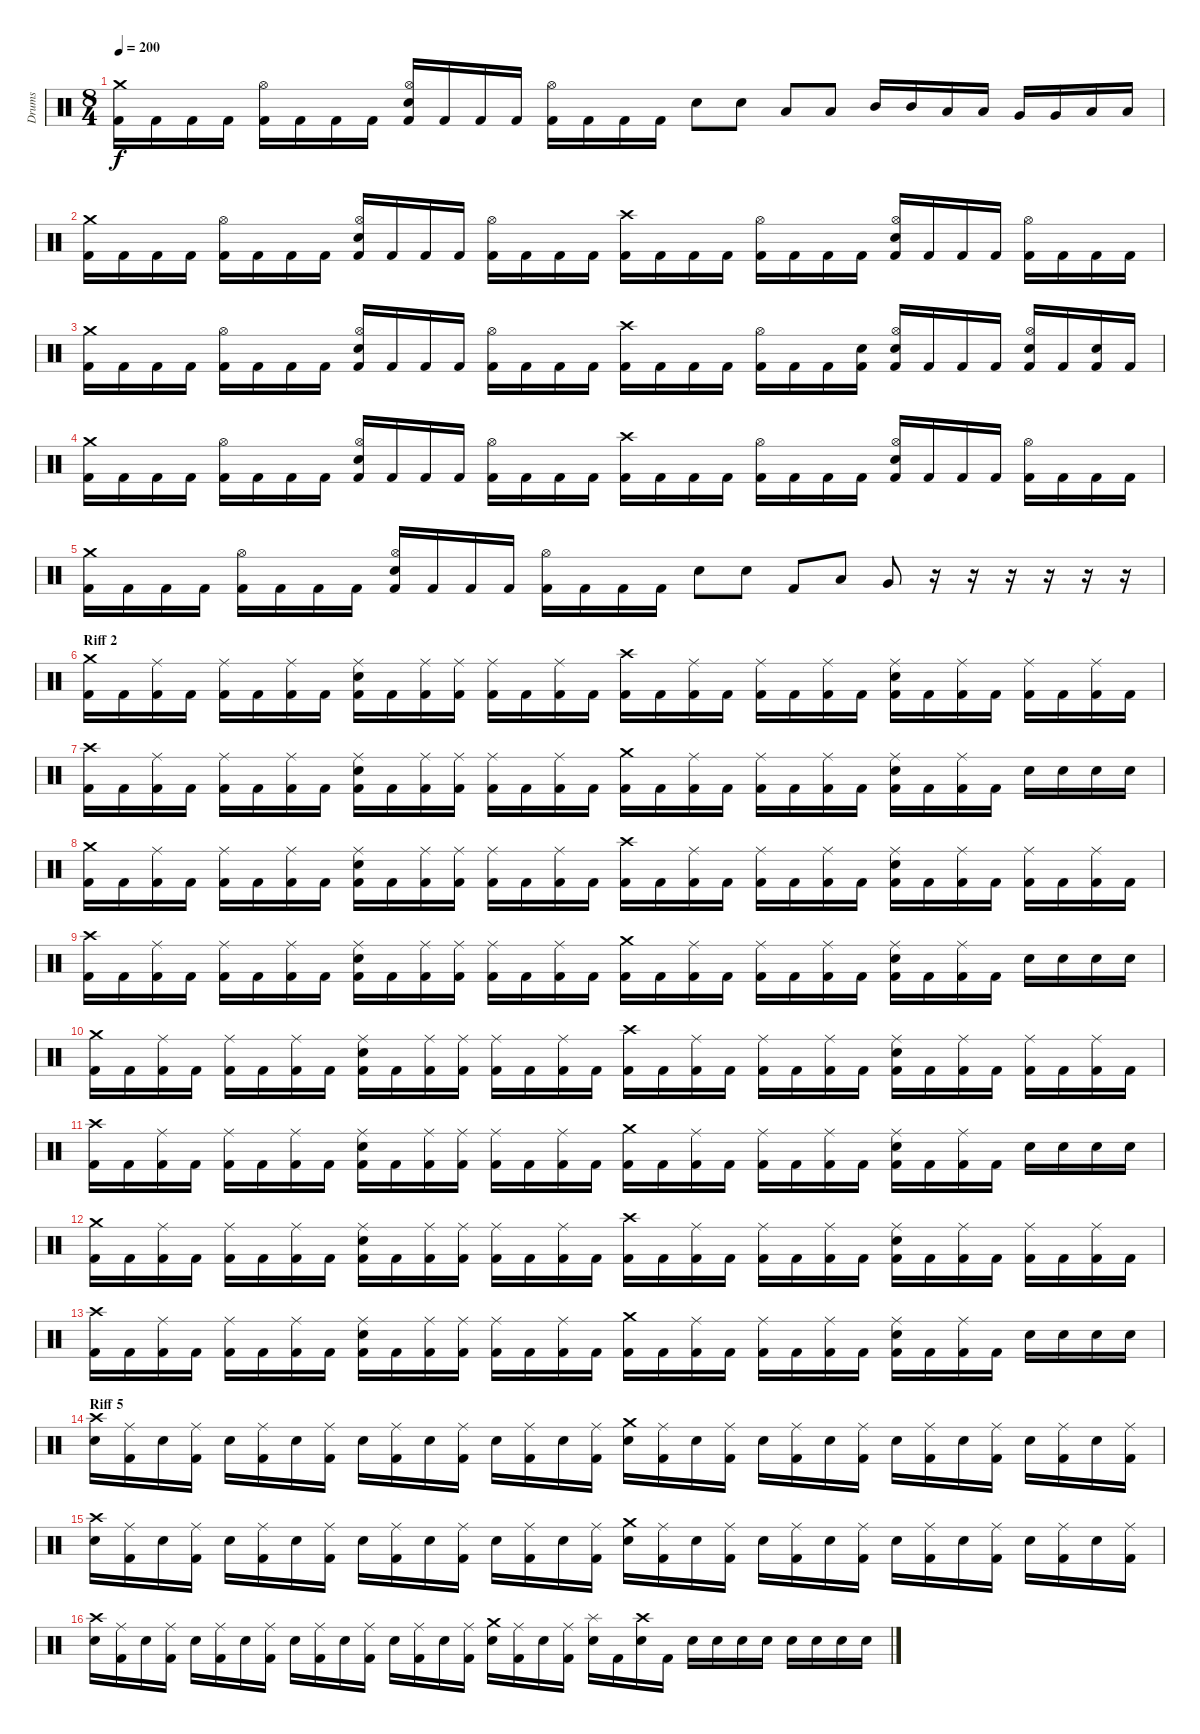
\track ("Drums" "Drums") {instrument percussion}
\staff {score}
\articulation defaults
\ts (8 4)
\tempo 200
\clef neutral
\ks c
("Crash medium (hit)" "Kick (hit) 2").16{dy f} "Kick (hit) 2".16 "Kick (hit) 2".16 "Kick (hit) 2".16 ("Hi-Hat (open)" "Kick (hit) 2").16 "Kick (hit) 2".16 "Kick (hit) 2".16 "Kick (hit) 2".16 ("Hi-Hat (open)" "Electric Snare (hit)" "Kick (hit) 2").16 "Kick (hit) 2".16 "Kick (hit) 2".16 "Kick (hit) 2".16 ("Hi-Hat (open)" "Kick (hit) 2").16 "Kick (hit) 2".16 "Kick (hit) 2".16 "Kick (hit) 2".16 "Electric Snare (hit)".8 "Electric Snare (hit)".8 "Low Tom (hit)".8 "Low Tom (hit)".8 "Mid Tom (hit)".16 "Mid Tom (hit)".16 "Low Tom (hit)".16 "Low Tom (hit)".16 "Very Low Tom (hit)".16 "Very Low Tom (hit)".16 "Low Floor Tom (hit)".16 "Low Floor Tom (hit)".16 |
("Crash medium (hit)" "Kick (hit) 2").16 "Kick (hit) 2".16 "Kick (hit) 2".16 "Kick (hit) 2".16 ("Hi-Hat (open)" "Kick (hit) 2").16 "Kick (hit) 2".16 "Kick (hit) 2".16 "Kick (hit) 2".16 ("Hi-Hat (open)" "Electric Snare (hit)" "Kick (hit) 2").16 "Kick (hit) 2".16 "Kick (hit) 2".16 "Kick (hit) 2".16 ("Hi-Hat (open)" "Kick (hit) 2").16 "Kick (hit) 2".16 "Kick (hit) 2".16 "Kick (hit) 2".16 ("Crash high (hit)" "Kick (hit) 2").16 "Kick (hit) 2".16 "Kick (hit) 2".16 "Kick (hit) 2".16 ("Hi-Hat (open)" "Kick (hit) 2").16 "Kick (hit) 2".16 "Kick (hit) 2".16 "Kick (hit) 2".16 ("Hi-Hat (open)" "Electric Snare (hit)" "Kick (hit) 2").16 "Kick (hit) 2".16 "Kick (hit) 2".16 "Kick (hit) 2".16 ("Hi-Hat (open)" "Kick (hit) 2").16 "Kick (hit) 2".16 "Kick (hit) 2".16 "Kick (hit) 2".16 |
("Crash medium (hit)" "Kick (hit) 2").16 "Kick (hit) 2".16 "Kick (hit) 2".16 "Kick (hit) 2".16 ("Hi-Hat (open)" "Kick (hit) 2").16 "Kick (hit) 2".16 "Kick (hit) 2".16 "Kick (hit) 2".16 ("Hi-Hat (open)" "Electric Snare (hit)" "Kick (hit) 2").16 "Kick (hit) 2".16 "Kick (hit) 2".16 "Kick (hit) 2".16 ("Hi-Hat (open)" "Kick (hit) 2").16 "Kick (hit) 2".16 "Kick (hit) 2".16 "Kick (hit) 2".16 ("Crash high (hit)" "Kick (hit) 2").16 "Kick (hit) 2".16 "Kick (hit) 2".16 "Kick (hit) 2".16 ("Hi-Hat (open)" "Kick (hit) 2").16 "Kick (hit) 2".16 "Kick (hit) 2".16 ("Electric Snare (hit)" "Kick (hit) 2").16 ("Hi-Hat (open)" "Electric Snare (hit)" "Kick (hit) 2").16 "Kick (hit) 2".16 "Kick (hit) 2".16 "Kick (hit) 2".16 ("Hi-Hat (open)" "Electric Snare (hit)" "Kick (hit) 2").16 "Kick (hit) 2".16 ("Electric Snare (hit)" "Kick (hit) 2").16 "Kick (hit) 2".16 |
("Crash medium (hit)" "Kick (hit) 2").16 "Kick (hit) 2".16 "Kick (hit) 2".16 "Kick (hit) 2".16 ("Hi-Hat (open)" "Kick (hit) 2").16 "Kick (hit) 2".16 "Kick (hit) 2".16 "Kick (hit) 2".16 ("Hi-Hat (open)" "Electric Snare (hit)" "Kick (hit) 2").16 "Kick (hit) 2".16 "Kick (hit) 2".16 "Kick (hit) 2".16 ("Hi-Hat (open)" "Kick (hit) 2").16 "Kick (hit) 2".16 "Kick (hit) 2".16 "Kick (hit) 2".16 ("Crash high (hit)" "Kick (hit) 2").16 "Kick (hit) 2".16 "Kick (hit) 2".16 "Kick (hit) 2".16 ("Hi-Hat (open)" "Kick (hit) 2").16 "Kick (hit) 2".16 "Kick (hit) 2".16 "Kick (hit) 2".16 ("Hi-Hat (open)" "Electric Snare (hit)" "Kick (hit) 2").16 "Kick (hit) 2".16 "Kick (hit) 2".16 "Kick (hit) 2".16 ("Hi-Hat (open)" "Kick (hit) 2").16 "Kick (hit) 2".16 "Kick (hit) 2".16 "Kick (hit) 2".16 |
("Crash medium (hit)" "Kick (hit) 2").16 "Kick (hit) 2".16 "Kick (hit) 2".16 "Kick (hit) 2".16 ("Hi-Hat (open)" "Kick (hit) 2").16 "Kick (hit) 2".16 "Kick (hit) 2".16 "Kick (hit) 2".16 ("Hi-Hat (open)" "Electric Snare (hit)" "Kick (hit) 2").16 "Kick (hit) 2".16 "Kick (hit) 2".16 "Kick (hit) 2".16 ("Hi-Hat (open)" "Kick (hit) 2").16 "Kick (hit) 2".16 "Kick (hit) 2".16 "Kick (hit) 2".16 "Electric Snare (hit)".8 "Electric Snare (hit)".8 "Kick (hit) 2".8 "Low Tom (hit)".8 "Very Low Tom (hit)".8 r.16 r.16 r.16 r.16 r.16 r.16 |
\section ("" "Riff 2")
("Crash medium (hit)" "Kick (hit) 2").16 "Kick (hit) 2".16 ("Ride (middle)" "Kick (hit) 2").16 "Kick (hit) 2".16 ("Ride (middle)" "Kick (hit) 2").16 "Kick (hit) 2".16 ("Ride (middle)" "Kick (hit) 2").16 "Kick (hit) 2".16 ("Ride (middle)" "Electric Snare (hit)" "Kick (hit) 2").16 "Kick (hit) 2".16 ("Ride (middle)" "Kick (hit) 2").16 ("Ride (middle)" "Kick (hit) 2").16 ("Ride (middle)" "Kick (hit) 2").16 "Kick (hit) 2".16 ("Ride (middle)" "Kick (hit) 2").16 "Kick (hit) 2".16 ("Crash high (hit)" "Kick (hit) 2").16 "Kick (hit) 2".16 ("Ride (middle)" "Kick (hit) 2").16 "Kick (hit) 2".16 ("Ride (middle)" "Kick (hit) 2").16 "Kick (hit) 2".16 ("Ride (middle)" "Kick (hit) 2").16 "Kick (hit) 2".16 ("Ride (middle)" "Electric Snare (hit)" "Kick (hit) 2").16 "Kick (hit) 2".16 ("Ride (middle)" "Kick (hit) 2").16 "Kick (hit) 2".16 ("Ride (middle)" "Kick (hit) 2").16 "Kick (hit) 2".16 ("Ride (middle)" "Kick (hit) 2").16 "Kick (hit) 2".16 |
("Crash high (hit)" "Kick (hit) 2").16 "Kick (hit) 2".16 ("Ride (middle)" "Kick (hit) 2").16 "Kick (hit) 2".16 ("Ride (middle)" "Kick (hit) 2").16 "Kick (hit) 2".16 ("Ride (middle)" "Kick (hit) 2").16 "Kick (hit) 2".16 ("Ride (middle)" "Electric Snare (hit)" "Kick (hit) 2").16 "Kick (hit) 2".16 ("Ride (middle)" "Kick (hit) 2").16 ("Ride (middle)" "Kick (hit) 2").16 ("Ride (middle)" "Kick (hit) 2").16 "Kick (hit) 2".16 ("Ride (middle)" "Kick (hit) 2").16 "Kick (hit) 2".16 ("Crash medium (hit)" "Kick (hit) 2").16 "Kick (hit) 2".16 ("Ride (middle)" "Kick (hit) 2").16 "Kick (hit) 2".16 ("Ride (middle)" "Kick (hit) 2").16 "Kick (hit) 2".16 ("Ride (middle)" "Kick (hit) 2").16 "Kick (hit) 2".16 ("Ride (middle)" "Electric Snare (hit)" "Kick (hit) 2").16 "Kick (hit) 2".16 ("Ride (middle)" "Kick (hit) 2").16 "Kick (hit) 2".16 "Electric Snare (hit)".16 "Electric Snare (hit)".16 "Electric Snare (hit)".16 "Electric Snare (hit)".16 |
("Crash medium (hit)" "Kick (hit) 2").16 "Kick (hit) 2".16 ("Ride (middle)" "Kick (hit) 2").16 "Kick (hit) 2".16 ("Ride (middle)" "Kick (hit) 2").16 "Kick (hit) 2".16 ("Ride (middle)" "Kick (hit) 2").16 "Kick (hit) 2".16 ("Ride (middle)" "Electric Snare (hit)" "Kick (hit) 2").16 "Kick (hit) 2".16 ("Ride (middle)" "Kick (hit) 2").16 ("Ride (middle)" "Kick (hit) 2").16 ("Ride (middle)" "Kick (hit) 2").16 "Kick (hit) 2".16 ("Ride (middle)" "Kick (hit) 2").16 "Kick (hit) 2".16 ("Crash high (hit)" "Kick (hit) 2").16 "Kick (hit) 2".16 ("Ride (middle)" "Kick (hit) 2").16 "Kick (hit) 2".16 ("Ride (middle)" "Kick (hit) 2").16 "Kick (hit) 2".16 ("Ride (middle)" "Kick (hit) 2").16 "Kick (hit) 2".16 ("Ride (middle)" "Electric Snare (hit)" "Kick (hit) 2").16 "Kick (hit) 2".16 ("Ride (middle)" "Kick (hit) 2").16 "Kick (hit) 2".16 ("Ride (middle)" "Kick (hit) 2").16 "Kick (hit) 2".16 ("Ride (middle)" "Kick (hit) 2").16 "Kick (hit) 2".16 |
("Crash high (hit)" "Kick (hit) 2").16 "Kick (hit) 2".16 ("Ride (middle)" "Kick (hit) 2").16 "Kick (hit) 2".16 ("Ride (middle)" "Kick (hit) 2").16 "Kick (hit) 2".16 ("Ride (middle)" "Kick (hit) 2").16 "Kick (hit) 2".16 ("Ride (middle)" "Electric Snare (hit)" "Kick (hit) 2").16 "Kick (hit) 2".16 ("Ride (middle)" "Kick (hit) 2").16 ("Ride (middle)" "Kick (hit) 2").16 ("Ride (middle)" "Kick (hit) 2").16 "Kick (hit) 2".16 ("Ride (middle)" "Kick (hit) 2").16 "Kick (hit) 2".16 ("Crash medium (hit)" "Kick (hit) 2").16 "Kick (hit) 2".16 ("Ride (middle)" "Kick (hit) 2").16 "Kick (hit) 2".16 ("Ride (middle)" "Kick (hit) 2").16 "Kick (hit) 2".16 ("Ride (middle)" "Kick (hit) 2").16 "Kick (hit) 2".16 ("Ride (middle)" "Electric Snare (hit)" "Kick (hit) 2").16 "Kick (hit) 2".16 ("Ride (middle)" "Kick (hit) 2").16 "Kick (hit) 2".16 "Electric Snare (hit)".16 "Electric Snare (hit)".16 "Electric Snare (hit)".16 "Electric Snare (hit)".16 |
("Crash medium (hit)" "Kick (hit) 2").16 "Kick (hit) 2".16 ("Ride (middle)" "Kick (hit) 2").16 "Kick (hit) 2".16 ("Ride (middle)" "Kick (hit) 2").16 "Kick (hit) 2".16 ("Ride (middle)" "Kick (hit) 2").16 "Kick (hit) 2".16 ("Ride (middle)" "Electric Snare (hit)" "Kick (hit) 2").16 "Kick (hit) 2".16 ("Ride (middle)" "Kick (hit) 2").16 ("Ride (middle)" "Kick (hit) 2").16 ("Ride (middle)" "Kick (hit) 2").16 "Kick (hit) 2".16 ("Ride (middle)" "Kick (hit) 2").16 "Kick (hit) 2".16 ("Crash high (hit)" "Kick (hit) 2").16 "Kick (hit) 2".16 ("Ride (middle)" "Kick (hit) 2").16 "Kick (hit) 2".16 ("Ride (middle)" "Kick (hit) 2").16 "Kick (hit) 2".16 ("Ride (middle)" "Kick (hit) 2").16 "Kick (hit) 2".16 ("Ride (middle)" "Electric Snare (hit)" "Kick (hit) 2").16 "Kick (hit) 2".16 ("Ride (middle)" "Kick (hit) 2").16 "Kick (hit) 2".16 ("Ride (middle)" "Kick (hit) 2").16 "Kick (hit) 2".16 ("Ride (middle)" "Kick (hit) 2").16 "Kick (hit) 2".16 |
("Crash high (hit)" "Kick (hit) 2").16 "Kick (hit) 2".16 ("Ride (middle)" "Kick (hit) 2").16 "Kick (hit) 2".16 ("Ride (middle)" "Kick (hit) 2").16 "Kick (hit) 2".16 ("Ride (middle)" "Kick (hit) 2").16 "Kick (hit) 2".16 ("Ride (middle)" "Electric Snare (hit)" "Kick (hit) 2").16 "Kick (hit) 2".16 ("Ride (middle)" "Kick (hit) 2").16 ("Ride (middle)" "Kick (hit) 2").16 ("Ride (middle)" "Kick (hit) 2").16 "Kick (hit) 2".16 ("Ride (middle)" "Kick (hit) 2").16 "Kick (hit) 2".16 ("Crash medium (hit)" "Kick (hit) 2").16 "Kick (hit) 2".16 ("Ride (middle)" "Kick (hit) 2").16 "Kick (hit) 2".16 ("Ride (middle)" "Kick (hit) 2").16 "Kick (hit) 2".16 ("Ride (middle)" "Kick (hit) 2").16 "Kick (hit) 2".16 ("Ride (middle)" "Electric Snare (hit)" "Kick (hit) 2").16 "Kick (hit) 2".16 ("Ride (middle)" "Kick (hit) 2").16 "Kick (hit) 2".16 "Electric Snare (hit)".16 "Electric Snare (hit)".16 "Electric Snare (hit)".16 "Electric Snare (hit)".16 |
("Crash medium (hit)" "Kick (hit) 2").16 "Kick (hit) 2".16 ("Ride (middle)" "Kick (hit) 2").16 "Kick (hit) 2".16 ("Ride (middle)" "Kick (hit) 2").16 "Kick (hit) 2".16 ("Ride (middle)" "Kick (hit) 2").16 "Kick (hit) 2".16 ("Ride (middle)" "Electric Snare (hit)" "Kick (hit) 2").16 "Kick (hit) 2".16 ("Ride (middle)" "Kick (hit) 2").16 ("Ride (middle)" "Kick (hit) 2").16 ("Ride (middle)" "Kick (hit) 2").16 "Kick (hit) 2".16 ("Ride (middle)" "Kick (hit) 2").16 "Kick (hit) 2".16 ("Crash high (hit)" "Kick (hit) 2").16 "Kick (hit) 2".16 ("Ride (middle)" "Kick (hit) 2").16 "Kick (hit) 2".16 ("Ride (middle)" "Kick (hit) 2").16 "Kick (hit) 2".16 ("Ride (middle)" "Kick (hit) 2").16 "Kick (hit) 2".16 ("Ride (middle)" "Electric Snare (hit)" "Kick (hit) 2").16 "Kick (hit) 2".16 ("Ride (middle)" "Kick (hit) 2").16 "Kick (hit) 2".16 ("Ride (middle)" "Kick (hit) 2").16 "Kick (hit) 2".16 ("Ride (middle)" "Kick (hit) 2").16 "Kick (hit) 2".16 |
("Crash high (hit)" "Kick (hit) 2").16 "Kick (hit) 2".16 ("Ride (middle)" "Kick (hit) 2").16 "Kick (hit) 2".16 ("Ride (middle)" "Kick (hit) 2").16 "Kick (hit) 2".16 ("Ride (middle)" "Kick (hit) 2").16 "Kick (hit) 2".16 ("Ride (middle)" "Electric Snare (hit)" "Kick (hit) 2").16 "Kick (hit) 2".16 ("Ride (middle)" "Kick (hit) 2").16 ("Ride (middle)" "Kick (hit) 2").16 ("Ride (middle)" "Kick (hit) 2").16 "Kick (hit) 2".16 ("Ride (middle)" "Kick (hit) 2").16 "Kick (hit) 2".16 ("Crash medium (hit)" "Kick (hit) 2").16 "Kick (hit) 2".16 ("Ride (middle)" "Kick (hit) 2").16 "Kick (hit) 2".16 ("Ride (middle)" "Kick (hit) 2").16 "Kick (hit) 2".16 ("Ride (middle)" "Kick (hit) 2").16 "Kick (hit) 2".16 ("Ride (middle)" "Electric Snare (hit)" "Kick (hit) 2").16 "Kick (hit) 2".16 ("Ride (middle)" "Kick (hit) 2").16 "Kick (hit) 2".16 "Electric Snare (hit)".16 "Electric Snare (hit)".16 "Electric Snare (hit)".16 "Electric Snare (hit)".16 |
\section ("" "Riff 5")
("Crash high (hit)" "Electric Snare (hit)").16 ("Ride (middle)" "Kick (hit) 2").16 "Electric Snare (hit)".16 ("Ride (middle)" "Kick (hit) 2").16 "Electric Snare (hit)".16 ("Ride (middle)" "Kick (hit) 2").16 "Electric Snare (hit)".16 ("Ride (middle)" "Kick (hit) 2").16 "Electric Snare (hit)".16 ("Ride (middle)" "Kick (hit) 2").16 "Electric Snare (hit)".16 ("Ride (middle)" "Kick (hit) 2").16 "Electric Snare (hit)".16 ("Ride (middle)" "Kick (hit) 2").16 "Electric Snare (hit)".16 ("Ride (middle)" "Kick (hit) 2").16 ("Crash medium (hit)" "Electric Snare (hit)").16 ("Ride (middle)" "Kick (hit) 2").16 "Electric Snare (hit)".16 ("Ride (middle)" "Kick (hit) 2").16 "Electric Snare (hit)".16 ("Ride (middle)" "Kick (hit) 2").16 "Electric Snare (hit)".16 ("Ride (middle)" "Kick (hit) 2").16 "Electric Snare (hit)".16 ("Ride (middle)" "Kick (hit) 2").16 "Electric Snare (hit)".16 ("Ride (middle)" "Kick (hit) 2").16 "Electric Snare (hit)".16 ("Ride (middle)" "Kick (hit) 2").16 "Electric Snare (hit)".16 ("Ride (middle)" "Kick (hit) 2").16 |
("Crash high (hit)" "Electric Snare (hit)").16 ("Ride (middle)" "Kick (hit) 2").16 "Electric Snare (hit)".16 ("Ride (middle)" "Kick (hit) 2").16 "Electric Snare (hit)".16 ("Ride (middle)" "Kick (hit) 2").16 "Electric Snare (hit)".16 ("Ride (middle)" "Kick (hit) 2").16 "Electric Snare (hit)".16 ("Ride (middle)" "Kick (hit) 2").16 "Electric Snare (hit)".16 ("Ride (middle)" "Kick (hit) 2").16 "Electric Snare (hit)".16 ("Ride (middle)" "Kick (hit) 2").16 "Electric Snare (hit)".16 ("Ride (middle)" "Kick (hit) 2").16 ("Crash medium (hit)" "Electric Snare (hit)").16 ("Ride (middle)" "Kick (hit) 2").16 "Electric Snare (hit)".16 ("Ride (middle)" "Kick (hit) 2").16 "Electric Snare (hit)".16 ("Ride (middle)" "Kick (hit) 2").16 "Electric Snare (hit)".16 ("Ride (middle)" "Kick (hit) 2").16 "Electric Snare (hit)".16 ("Ride (middle)" "Kick (hit) 2").16 "Electric Snare (hit)".16 ("Ride (middle)" "Kick (hit) 2").16 "Electric Snare (hit)".16 ("Ride (middle)" "Kick (hit) 2").16 "Electric Snare (hit)".16 ("Ride (middle)" "Kick (hit) 2").16 |
("Crash high (hit)" "Electric Snare (hit)").16 ("Ride (middle)" "Kick (hit) 2").16 "Electric Snare (hit)".16 ("Ride (middle)" "Kick (hit) 2").16 "Electric Snare (hit)".16 ("Ride (middle)" "Kick (hit) 2").16 "Electric Snare (hit)".16 ("Ride (middle)" "Kick (hit) 2").16 "Electric Snare (hit)".16 ("Ride (middle)" "Kick (hit) 2").16 "Electric Snare (hit)".16 ("Ride (middle)" "Kick (hit) 2").16 "Electric Snare (hit)".16 ("Ride (middle)" "Kick (hit) 2").16 "Electric Snare (hit)".16 ("Ride (middle)" "Kick (hit) 2").16 ("Crash medium (hit)" "Electric Snare (hit)").16 ("Ride (middle)" "Kick (hit) 2").16 "Electric Snare (hit)".16 ("Ride (middle)" "Kick (hit) 2").16 ("Splash (hit)" "Electric Snare (hit)").16 "Kick (hit) 2".16 ("Crash high (hit)" "Electric Snare (hit)").16 "Kick (hit) 2".16 "Electric Snare (hit)".16 "Electric Snare (hit)".16 "Electric Snare (hit)".16 "Electric Snare (hit)".16 "Electric Snare (hit)".16 "Electric Snare (hit)".16 "Electric Snare (hit)".16 "Electric Snare (hit)".16
